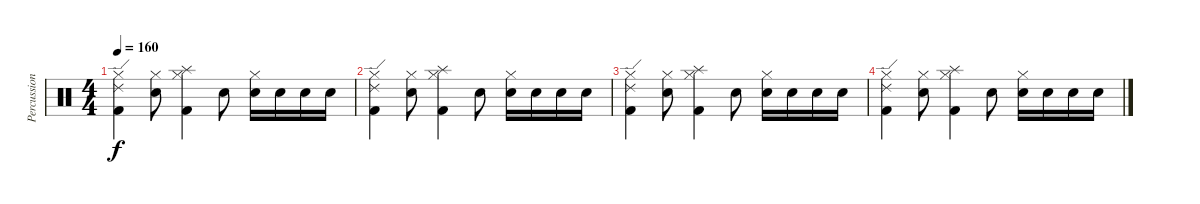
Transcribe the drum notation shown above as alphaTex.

\track ("Percussion" "Percussion") {instrument percussion}
\staff {score}
\articulation defaults
\ts (4 4)
\tempo 160
\clef neutral
\ks c
("Hi-Hat (closed)" "Ride (edge) 2" "Kick (hit) 2").4{dy f} ("Hi-Hat (closed)" "Electric Snare (hit)").8 ("Hi-Hat (closed)" "Splash (hit)" "Kick (hit) 2").4 "Electric Snare (hit)".8 ("Hi-Hat (closed)" "Electric Snare (hit)").16 "Electric Snare (hit)".16 "Electric Snare (hit)".16 "Electric Snare (hit)".16 |
("Hi-Hat (closed)" "Ride (edge) 2" "Kick (hit) 2").4 ("Hi-Hat (closed)" "Electric Snare (hit)").8 ("Hi-Hat (closed)" "Splash (hit)" "Kick (hit) 2").4 "Electric Snare (hit)".8 ("Hi-Hat (closed)" "Electric Snare (hit)").16 "Electric Snare (hit)".16 "Electric Snare (hit)".16 "Electric Snare (hit)".16 |
("Hi-Hat (closed)" "Ride (edge) 2" "Kick (hit) 2").4 ("Hi-Hat (closed)" "Electric Snare (hit)").8 ("Hi-Hat (closed)" "Splash (hit)" "Kick (hit) 2").4 "Electric Snare (hit)".8 ("Hi-Hat (closed)" "Electric Snare (hit)").16 "Electric Snare (hit)".16 "Electric Snare (hit)".16 "Electric Snare (hit)".16 |
("Hi-Hat (closed)" "Ride (edge) 2" "Kick (hit) 2").4 ("Hi-Hat (closed)" "Electric Snare (hit)").8 ("Hi-Hat (closed)" "Splash (hit)" "Kick (hit) 2").4 "Electric Snare (hit)".8 ("Hi-Hat (closed)" "Electric Snare (hit)").16 "Electric Snare (hit)".16 "Electric Snare (hit)".16 "Electric Snare (hit)".16
